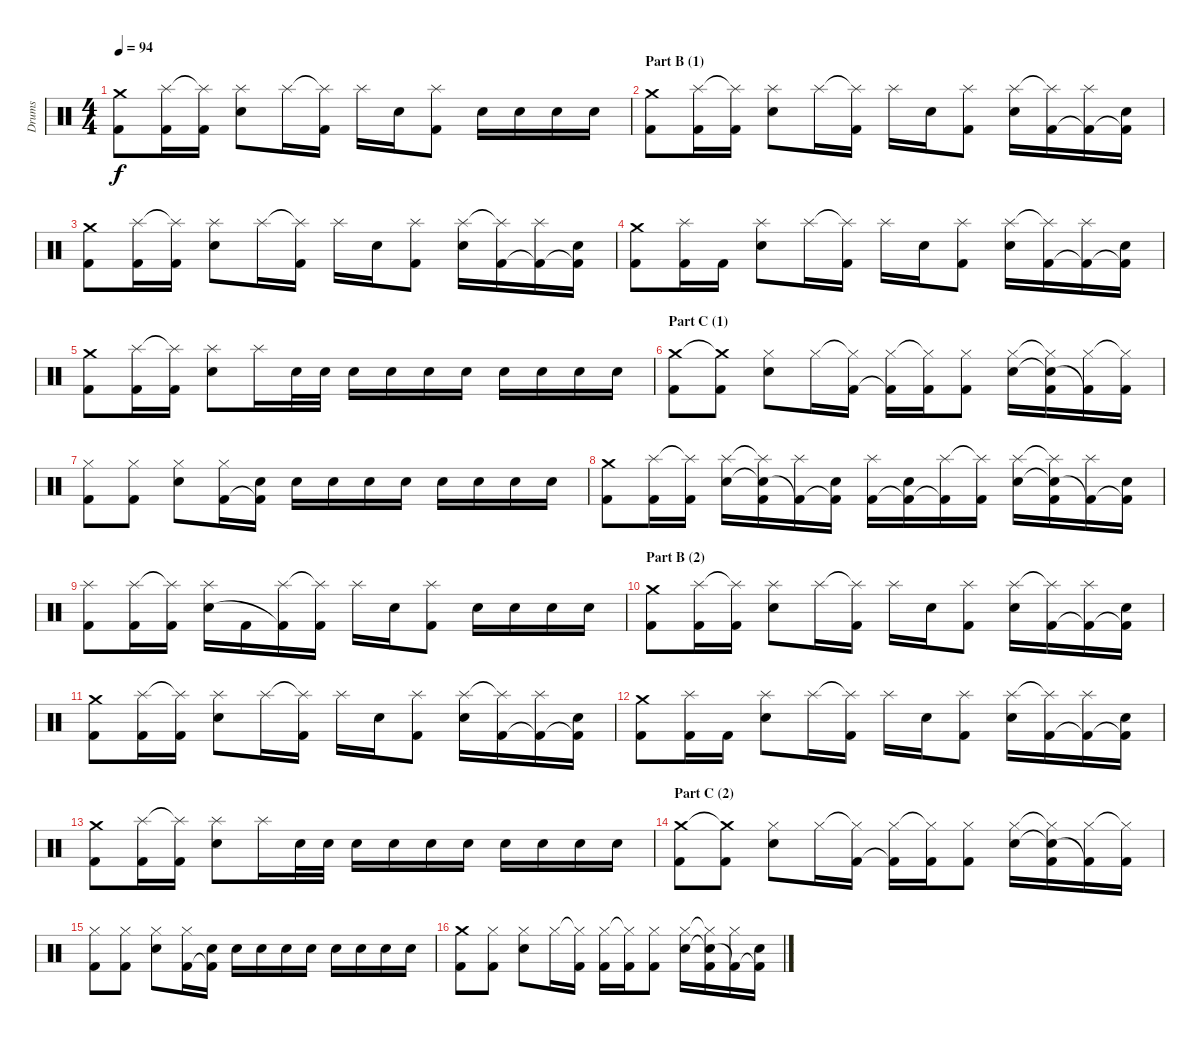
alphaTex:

\track ("Drums" "Drums") {instrument percussion}
\staff {score}
\articulation defaults
\ts (4 4)
\tempo 94
\clef neutral
\ks c
("Crash medium (hit)" "Kick (hit) 2").8{dy f} ("Splash (hit)" "Kick (hit) 2").16 ("Splash (hit)"{t} "Kick (hit) 2").16 ("Splash (hit)" "Electric Snare (hit)").8 "Splash (hit)".16 ("Splash (hit)"{t} "Kick (hit) 2").16 "Splash (hit)".16 "Electric Snare (hit)".16 ("Splash (hit)" "Kick (hit) 2").8 "Electric Snare (hit)".16 "Electric Snare (hit)".16 "Electric Snare (hit)".16 "Electric Snare (hit)".16 |
\section ("" "Part B (1)")
("Crash medium (hit)" "Kick (hit) 2").8 ("Splash (hit)" "Kick (hit) 2").16 ("Splash (hit)"{t} "Kick (hit) 2").16 ("Splash (hit)" "Electric Snare (hit)").8 "Splash (hit)".16 ("Splash (hit)"{t} "Kick (hit) 2").16 "Splash (hit)".16 "Electric Snare (hit)".16 ("Splash (hit)" "Kick (hit) 2").8 ("Splash (hit)" "Electric Snare (hit)").16 ("Splash (hit)"{t} "Kick (hit) 2").16 ("Splash (hit)" "Kick (hit) 2"{t}).16 ("Electric Snare (hit)" "Kick (hit) 2"{t}).16 |
("Crash medium (hit)" "Kick (hit) 2").8 ("Splash (hit)" "Kick (hit) 2").16 ("Splash (hit)"{t} "Kick (hit) 2").16 ("Splash (hit)" "Electric Snare (hit)").8 "Splash (hit)".16 ("Splash (hit)"{t} "Kick (hit) 2").16 "Splash (hit)".16 "Electric Snare (hit)".16 ("Splash (hit)" "Kick (hit) 2").8 ("Splash (hit)" "Electric Snare (hit)").16 ("Splash (hit)"{t} "Kick (hit) 2").16 ("Splash (hit)" "Kick (hit) 2"{t}).16 ("Electric Snare (hit)" "Kick (hit) 2"{t}).16 |
("Crash medium (hit)" "Kick (hit) 2").8 ("Splash (hit)" "Kick (hit) 2").16 "Kick (hit) 2".16 ("Splash (hit)" "Electric Snare (hit)").8 "Splash (hit)".16 ("Splash (hit)"{t} "Kick (hit) 2").16 "Splash (hit)".16 "Electric Snare (hit)".16 ("Splash (hit)" "Kick (hit) 2").8 ("Splash (hit)" "Electric Snare (hit)").16 ("Splash (hit)"{t} "Kick (hit) 2").16 ("Splash (hit)" "Kick (hit) 2"{t}).16 ("Electric Snare (hit)" "Kick (hit) 2"{t}).16 |
("Crash medium (hit)" "Kick (hit) 2").8 ("Splash (hit)" "Kick (hit) 2").16 ("Splash (hit)"{t} "Kick (hit) 2").16 ("Splash (hit)" "Electric Snare (hit)").8 "Splash (hit)".16 "Electric Snare (hit)".32 "Electric Snare (hit)".32 "Electric Snare (hit)".16 "Electric Snare (hit)".16 "Electric Snare (hit)".16 "Electric Snare (hit)".16 "Electric Snare (hit)".16 "Electric Snare (hit)".16 "Electric Snare (hit)".16 "Electric Snare (hit)".16 |
\section ("" "Part C (1)")
("Crash medium (hit)" "Kick (hit) 2").8 ("Crash medium (hit)"{t} "Kick (hit) 2").8 ("Hi-Hat (closed)" "Electric Snare (hit)").8 "Hi-Hat (closed)".16 ("Hi-Hat (closed)"{t} "Kick (hit) 2").16 ("Hi-Hat (closed)" "Kick (hit) 2"{t}).16 ("Hi-Hat (closed)"{t} "Kick (hit) 2").16 ("Hi-Hat (closed)" "Kick (hit) 2").8 ("Hi-Hat (closed)" "Electric Snare (hit)").16 ("Hi-Hat (closed)"{t} "Electric Snare (hit)"{t} "Kick (hit) 2").16 ("Hi-Hat (closed)" "Kick (hit) 2"{t}).16 ("Hi-Hat (closed)"{t} "Kick (hit) 2").16 |
("Hi-Hat (closed)" "Kick (hit) 2").8 ("Hi-Hat (closed)" "Kick (hit) 2").8 ("Hi-Hat (closed)" "Electric Snare (hit)").8 ("Hi-Hat (closed)" "Kick (hit) 2").16 ("Electric Snare (hit)" "Kick (hit) 2"{t}).16 "Electric Snare (hit)".16 "Electric Snare (hit)".16 "Electric Snare (hit)".16 "Electric Snare (hit)".16 "Electric Snare (hit)".16 "Electric Snare (hit)".16 "Electric Snare (hit)".16 "Electric Snare (hit)".16 |
("Crash medium (hit)" "Kick (hit) 2").8 ("Splash (hit)" "Kick (hit) 2").16 ("Splash (hit)"{t} "Kick (hit) 2").16 ("Splash (hit)" "Electric Snare (hit)").16 ("Splash (hit)"{t} "Electric Snare (hit)"{t} "Kick (hit) 2").16 ("Splash (hit)" "Kick (hit) 2"{t}).16 ("Electric Snare (hit)" "Kick (hit) 2"{t}).16 ("Splash (hit)" "Kick (hit) 2").16 ("Electric Snare (hit)" "Kick (hit) 2"{t}).16 ("Splash (hit)" "Kick (hit) 2"{t}).16 ("Splash (hit)"{t} "Kick (hit) 2").16 ("Splash (hit)" "Electric Snare (hit)").16 ("Splash (hit)"{t} "Electric Snare (hit)"{t} "Kick (hit) 2").16 ("Splash (hit)" "Kick (hit) 2"{t}).16 ("Electric Snare (hit)" "Kick (hit) 2"{t}).16 |
("Splash (hit)" "Kick (hit) 2").8 ("Splash (hit)" "Kick (hit) 2").16 ("Splash (hit)"{t} "Kick (hit) 2").16 ("Splash (hit)" "Electric Snare (hit)").16 "Kick (hit) 2".16 ("Splash (hit)" "Kick (hit) 2"{t}).16 ("Splash (hit)"{t} "Kick (hit) 2").16 "Splash (hit)".16 "Electric Snare (hit)".16 ("Splash (hit)" "Kick (hit) 2").8 "Electric Snare (hit)".16 "Electric Snare (hit)".16 "Electric Snare (hit)".16 "Electric Snare (hit)".16 |
\section ("" "Part B (2)")
("Crash medium (hit)" "Kick (hit) 2").8 ("Splash (hit)" "Kick (hit) 2").16 ("Splash (hit)"{t} "Kick (hit) 2").16 ("Splash (hit)" "Electric Snare (hit)").8 "Splash (hit)".16 ("Splash (hit)"{t} "Kick (hit) 2").16 "Splash (hit)".16 "Electric Snare (hit)".16 ("Splash (hit)" "Kick (hit) 2").8 ("Splash (hit)" "Electric Snare (hit)").16 ("Splash (hit)"{t} "Kick (hit) 2").16 ("Splash (hit)" "Kick (hit) 2"{t}).16 ("Electric Snare (hit)" "Kick (hit) 2"{t}).16 |
("Crash medium (hit)" "Kick (hit) 2").8 ("Splash (hit)" "Kick (hit) 2").16 ("Splash (hit)"{t} "Kick (hit) 2").16 ("Splash (hit)" "Electric Snare (hit)").8 "Splash (hit)".16 ("Splash (hit)"{t} "Kick (hit) 2").16 "Splash (hit)".16 "Electric Snare (hit)".16 ("Splash (hit)" "Kick (hit) 2").8 ("Splash (hit)" "Electric Snare (hit)").16 ("Splash (hit)"{t} "Kick (hit) 2").16 ("Splash (hit)" "Kick (hit) 2"{t}).16 ("Electric Snare (hit)" "Kick (hit) 2"{t}).16 |
("Crash medium (hit)" "Kick (hit) 2").8 ("Splash (hit)" "Kick (hit) 2").16 "Kick (hit) 2".16 ("Splash (hit)" "Electric Snare (hit)").8 "Splash (hit)".16 ("Splash (hit)"{t} "Kick (hit) 2").16 "Splash (hit)".16 "Electric Snare (hit)".16 ("Splash (hit)" "Kick (hit) 2").8 ("Splash (hit)" "Electric Snare (hit)").16 ("Splash (hit)"{t} "Kick (hit) 2").16 ("Splash (hit)" "Kick (hit) 2"{t}).16 ("Electric Snare (hit)" "Kick (hit) 2"{t}).16 |
("Crash medium (hit)" "Kick (hit) 2").8 ("Splash (hit)" "Kick (hit) 2").16 ("Splash (hit)"{t} "Kick (hit) 2").16 ("Splash (hit)" "Electric Snare (hit)").8 "Splash (hit)".16 "Electric Snare (hit)".32 "Electric Snare (hit)".32 "Electric Snare (hit)".16 "Electric Snare (hit)".16 "Electric Snare (hit)".16 "Electric Snare (hit)".16 "Electric Snare (hit)".16 "Electric Snare (hit)".16 "Electric Snare (hit)".16 "Electric Snare (hit)".16 |
\section ("" "Part C (2)")
("Crash medium (hit)" "Kick (hit) 2").8 ("Crash medium (hit)"{t} "Kick (hit) 2").8 ("Hi-Hat (closed)" "Electric Snare (hit)").8 "Hi-Hat (closed)".16 ("Hi-Hat (closed)"{t} "Kick (hit) 2").16 ("Hi-Hat (closed)" "Kick (hit) 2"{t}).16 ("Hi-Hat (closed)"{t} "Kick (hit) 2").16 ("Hi-Hat (closed)" "Kick (hit) 2").8 ("Hi-Hat (closed)" "Electric Snare (hit)").16 ("Hi-Hat (closed)"{t} "Electric Snare (hit)"{t} "Kick (hit) 2").16 ("Hi-Hat (closed)" "Kick (hit) 2"{t}).16 ("Hi-Hat (closed)"{t} "Kick (hit) 2").16 |
("Hi-Hat (closed)" "Kick (hit) 2").8 ("Hi-Hat (closed)" "Kick (hit) 2").8 ("Hi-Hat (closed)" "Electric Snare (hit)").8 ("Hi-Hat (closed)" "Kick (hit) 2").16 ("Electric Snare (hit)" "Kick (hit) 2"{t}).16 "Electric Snare (hit)".16 "Electric Snare (hit)".16 "Electric Snare (hit)".16 "Electric Snare (hit)".16 "Electric Snare (hit)".16 "Electric Snare (hit)".16 "Electric Snare (hit)".16 "Electric Snare (hit)".16 |
("Crash medium (hit)" "Kick (hit) 2").8 ("Hi-Hat (closed)" "Kick (hit) 2").8 ("Hi-Hat (closed)" "Electric Snare (hit)").8 "Hi-Hat (closed)".16 ("Hi-Hat (closed)"{t} "Kick (hit) 2").16 ("Hi-Hat (closed)" "Kick (hit) 2").16 ("Hi-Hat (closed)"{t} "Kick (hit) 2").16 ("Hi-Hat (closed)" "Kick (hit) 2").8 ("Hi-Hat (closed)" "Electric Snare (hit)").16 ("Hi-Hat (closed)"{t} "Electric Snare (hit)"{t} "Kick (hit) 2").16 ("Hi-Hat (closed)" "Kick (hit) 2"{t}).16 ("Electric Snare (hit)" "Kick (hit) 2"{t}).16
